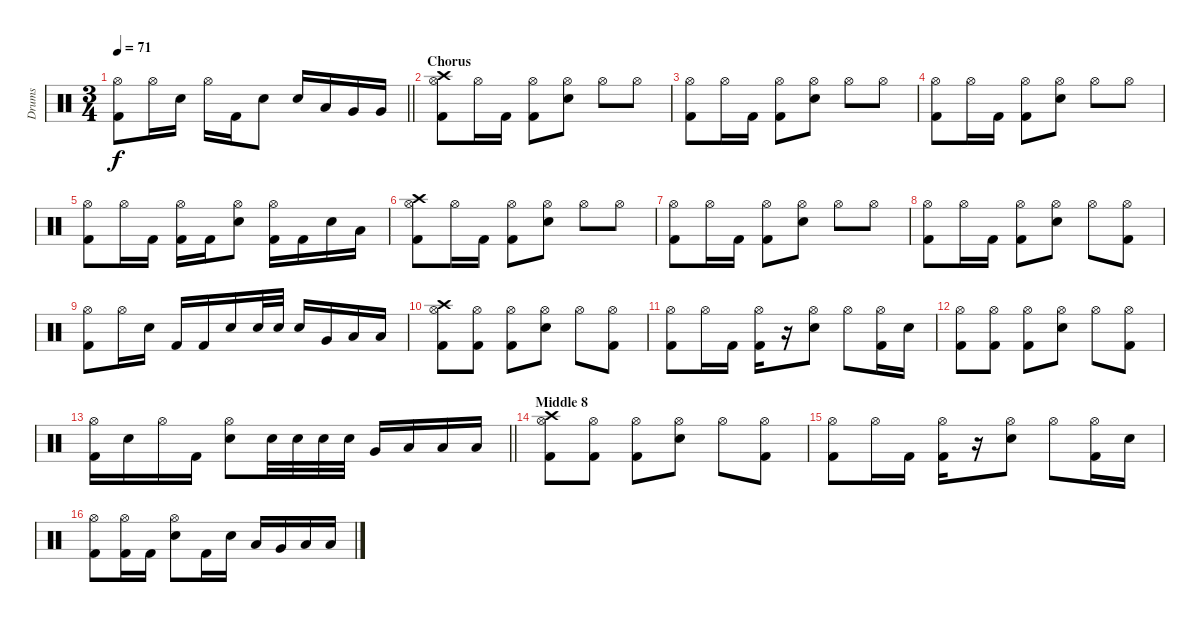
\track ("Drums" "Drums") {instrument percussion}
\staff {score}
\articulation defaults
\ts (3 4)
\tempo 71
\clef neutral
\barLineRight lightlight
\ks c
("Hi-Hat (open)" "Kick (hit) 2").8{dy f} "Hi-Hat (open)".16 "Snare (hit) 2".16 "Hi-Hat (open)".16 "Kick (hit) 2".16 "Snare (hit) 2".8 "Snare (hit) 2".16 "Low Floor Tom (hit)".16 "Very Low Tom (hit)".16 "Very Low Tom (hit)".16 |
\section ("" "Chorus")
("Crash high (hit)" "Hi-Hat (open)" "Kick (hit) 2").8 "Hi-Hat (open)".16 "Kick (hit) 2".16 ("Hi-Hat (open)" "Kick (hit) 2").8 ("Hi-Hat (open)" "Snare (hit) 2").8 "Hi-Hat (open)".8 "Hi-Hat (open)".8 |
("Hi-Hat (open)" "Kick (hit) 2").8 "Hi-Hat (open)".16 "Kick (hit) 2".16 ("Hi-Hat (open)" "Kick (hit) 2").8 ("Hi-Hat (open)" "Snare (hit) 2").8 "Hi-Hat (open)".8 "Hi-Hat (open)".8 |
("Hi-Hat (open)" "Kick (hit) 2").8 "Hi-Hat (open)".16 "Kick (hit) 2".16 ("Hi-Hat (open)" "Kick (hit) 2").8 ("Hi-Hat (open)" "Snare (hit) 2").8 "Hi-Hat (open)".8 "Hi-Hat (open)".8 |
("Hi-Hat (open)" "Kick (hit) 2").8 "Hi-Hat (open)".16 "Kick (hit) 2".16 ("Hi-Hat (open)" "Kick (hit) 2").16 "Kick (hit) 2".16 ("Hi-Hat (open)" "Snare (hit) 2").8 ("Hi-Hat (open)" "Kick (hit) 2").16 "Kick (hit) 2".16 "Snare (hit) 2".16 "Low Floor Tom (hit)".16 |
("Crash high (hit)" "Hi-Hat (open)" "Kick (hit) 2").8 "Hi-Hat (open)".16 "Kick (hit) 2".16 ("Hi-Hat (open)" "Kick (hit) 2").8 ("Hi-Hat (open)" "Snare (hit) 2").8 "Hi-Hat (open)".8 "Hi-Hat (open)".8 |
("Hi-Hat (open)" "Kick (hit) 2").8 "Hi-Hat (open)".16 "Kick (hit) 2".16 ("Hi-Hat (open)" "Kick (hit) 2").8 ("Hi-Hat (open)" "Snare (hit) 2").8 "Hi-Hat (open)".8 "Hi-Hat (open)".8 |
("Hi-Hat (open)" "Kick (hit) 2").8 "Hi-Hat (open)".16 "Kick (hit) 2".16 ("Hi-Hat (open)" "Kick (hit) 2").8 ("Hi-Hat (open)" "Snare (hit) 2").8 "Hi-Hat (open)".8 ("Hi-Hat (open)" "Kick (hit) 2").8 |
("Hi-Hat (open)" "Kick (hit) 2").8 "Hi-Hat (open)".16 "Snare (hit) 2".16 "Kick (hit) 2".16 "Kick (hit) 2".16 "Snare (hit) 2".16 "Snare (hit) 2".32 "Snare (hit) 2".32 "Snare (hit) 2".16 "Very Low Tom (hit)".16 "Low Floor Tom (hit)".16 "Low Floor Tom (hit)".16 |
("Crash high (hit)" "Hi-Hat (open)" "Kick (hit) 2").8 ("Hi-Hat (open)" "Kick (hit) 2").8 ("Hi-Hat (open)" "Kick (hit) 2").8 ("Hi-Hat (open)" "Snare (hit) 2").8 "Hi-Hat (open)".8 ("Hi-Hat (open)" "Kick (hit) 2").8 |
("Hi-Hat (open)" "Kick (hit) 2").8 "Hi-Hat (open)".16 "Kick (hit) 2".16 ("Hi-Hat (open)" "Kick (hit) 2").16 r.16 ("Hi-Hat (open)" "Snare (hit) 2").8 "Hi-Hat (open)".8 ("Hi-Hat (open)" "Kick (hit) 2").16 "Snare (hit) 2".16 |
("Hi-Hat (open)" "Kick (hit) 2").8 ("Hi-Hat (open)" "Kick (hit) 2").8 ("Hi-Hat (open)" "Kick (hit) 2").8 ("Hi-Hat (open)" "Snare (hit) 2").8 "Hi-Hat (open)".8 ("Hi-Hat (open)" "Kick (hit) 2").8 |
\barLineRight lightlight
("Hi-Hat (open)" "Kick (hit) 2").16 "Snare (hit) 2".16 "Hi-Hat (open)".16 "Kick (hit) 2".16 ("Hi-Hat (open)" "Snare (hit) 2").8 "Snare (hit) 2".32 "Snare (hit) 2".32 "Snare (hit) 2".32 "Snare (hit) 2".32 "Very Low Tom (hit)".16 "Low Floor Tom (hit)".16 "Low Floor Tom (hit)".16 "Low Floor Tom (hit)".16 |
\section ("" "Middle 8")
("Crash high (hit)" "Hi-Hat (open)" "Kick (hit) 2").8 ("Hi-Hat (open)" "Kick (hit) 2").8 ("Hi-Hat (open)" "Kick (hit) 2").8 ("Hi-Hat (open)" "Snare (hit) 2").8 "Hi-Hat (open)".8 ("Hi-Hat (open)" "Kick (hit) 2").8 |
("Hi-Hat (open)" "Kick (hit) 2").8 "Hi-Hat (open)".16 "Kick (hit) 2".16 ("Hi-Hat (open)" "Kick (hit) 2").16 r.16 ("Hi-Hat (open)" "Snare (hit) 2").8 "Hi-Hat (open)".8 ("Hi-Hat (open)" "Kick (hit) 2").16 "Snare (hit) 2".16 |
("Hi-Hat (open)" "Kick (hit) 2").8 ("Hi-Hat (open)" "Kick (hit) 2").16 "Kick (hit) 2".16 ("Hi-Hat (open)" "Snare (hit) 2").8 "Kick (hit) 2".16 "Snare (hit) 2".16 "Low Tom (hit)".16 "Very Low Tom (hit)".16 "Low Floor Tom (hit)".16 "Low Floor Tom (hit)".16
